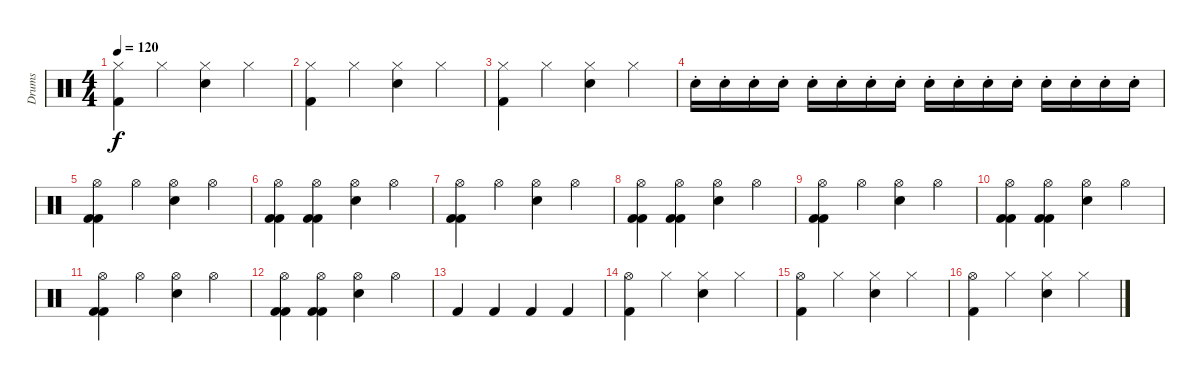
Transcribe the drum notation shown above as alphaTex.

\track ("Drums" "Drums") {instrument percussion}
\staff {score}
\articulation defaults
\ts (4 4)
\tempo 120
\clef neutral
\ks c
("Hi-Hat (closed)" "Kick (hit) 2").4{dy f} "Hi-Hat (closed)".4 ("Hi-Hat (closed)" "Electric Snare (hit)").4 "Hi-Hat (closed)".4 |
("Hi-Hat (closed)" "Kick (hit) 2").4 "Hi-Hat (closed)".4 ("Hi-Hat (closed)" "Electric Snare (hit)").4 "Hi-Hat (closed)".4 |
("Hi-Hat (closed)" "Kick (hit) 2").4 "Hi-Hat (closed)".4 ("Hi-Hat (closed)" "Electric Snare (hit)").4 "Hi-Hat (closed)".4 |
"Electric Snare (hit)"{st}.16 "Electric Snare (hit)"{st}.16 "Electric Snare (hit)"{st}.16 "Electric Snare (hit)"{st}.16 "Electric Snare (hit)"{st}.16 "Electric Snare (hit)"{st}.16 "Electric Snare (hit)"{st}.16 "Electric Snare (hit)"{st}.16 "Electric Snare (hit)"{st}.16 "Electric Snare (hit)"{st}.16 "Electric Snare (hit)"{st}.16 "Electric Snare (hit)"{st}.16 "Electric Snare (hit)"{st}.16 "Electric Snare (hit)"{st}.16 "Electric Snare (hit)"{st}.16 "Electric Snare (hit)"{st}.16 |
("Hi-Hat (open)" "Kick (hit) 2" "Kick (hit) 2").4 "Hi-Hat (open)".4 ("Hi-Hat (open)" "Electric Snare (hit)").4 "Hi-Hat (open)".4 |
("Hi-Hat (open)" "Kick (hit) 2" "Kick (hit) 2").4 ("Hi-Hat (open)" "Kick (hit) 2" "Kick (hit) 2").4 ("Hi-Hat (open)" "Electric Snare (hit)").4 "Hi-Hat (open)".4 |
("Hi-Hat (open)" "Kick (hit) 2" "Kick (hit) 2").4 "Hi-Hat (open)".4 ("Hi-Hat (open)" "Electric Snare (hit)").4 "Hi-Hat (open)".4 |
("Hi-Hat (open)" "Kick (hit) 2" "Kick (hit) 2").4 ("Hi-Hat (open)" "Kick (hit) 2" "Kick (hit) 2").4 ("Hi-Hat (open)" "Electric Snare (hit)").4 "Hi-Hat (open)".4 |
("Hi-Hat (open)" "Kick (hit) 2" "Kick (hit) 2").4 "Hi-Hat (open)".4 ("Hi-Hat (open)" "Electric Snare (hit)").4 "Hi-Hat (open)".4 |
("Hi-Hat (open)" "Kick (hit) 2" "Kick (hit) 2").4 ("Hi-Hat (open)" "Kick (hit) 2" "Kick (hit) 2").4 ("Hi-Hat (open)" "Electric Snare (hit)").4 "Hi-Hat (open)".4 |
("Hi-Hat (open)" "Kick (hit) 2" "Kick (hit) 2").4 "Hi-Hat (open)".4 ("Hi-Hat (open)" "Electric Snare (hit)").4 "Hi-Hat (open)".4 |
("Hi-Hat (open)" "Kick (hit) 2" "Kick (hit) 2").4 ("Hi-Hat (open)" "Kick (hit) 2" "Kick (hit) 2").4 ("Hi-Hat (open)" "Electric Snare (hit)").4 "Hi-Hat (open)".4 |
"Kick (hit) 2".4 "Kick (hit) 2".4 "Kick (hit) 2".4 "Kick (hit) 2".4 |
("Hi-Hat (open)" "Kick (hit) 2").4 "Hi-Hat (closed)".4 ("Hi-Hat (closed)" "Electric Snare (hit)").4 "Hi-Hat (closed)".4 |
("Hi-Hat (open)" "Kick (hit) 2").4 "Hi-Hat (closed)".4 ("Hi-Hat (closed)" "Electric Snare (hit)").4 "Hi-Hat (closed)".4 |
("Hi-Hat (open)" "Kick (hit) 2").4 "Hi-Hat (closed)".4 ("Hi-Hat (closed)" "Electric Snare (hit)").4 "Hi-Hat (closed)".4
